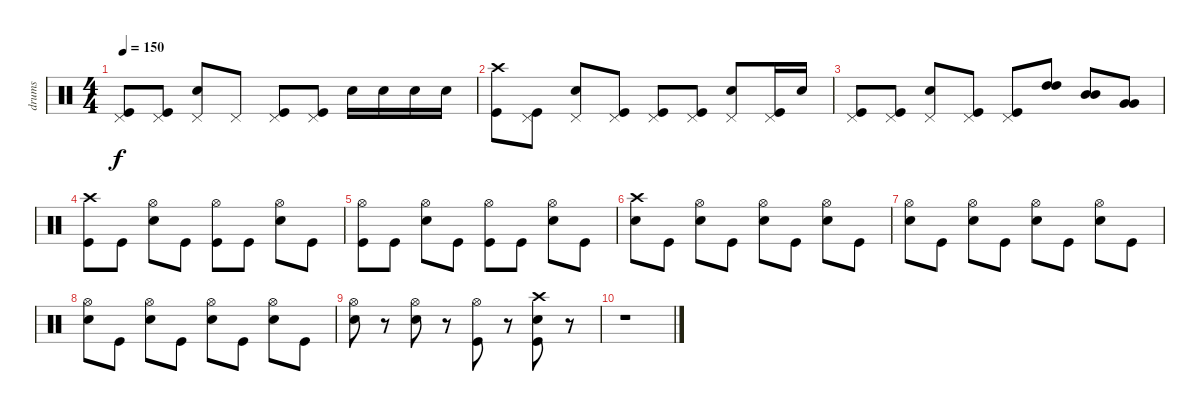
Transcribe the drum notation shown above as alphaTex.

\track ("drums" "drums") {instrument percussion}
\staff {score}
\articulation defaults
\ts (4 4)
\tempo 150
\clef neutral
\ks c
("Pedal Hi-Hat (hit)" "Kick (hit)").8{dy f} ("Pedal Hi-Hat (hit)" "Kick (hit)").8 ("Pedal Hi-Hat (hit)" "Electric Snare (hit)").8 "Pedal Hi-Hat (hit)".8 ("Pedal Hi-Hat (hit)" "Kick (hit)").8 ("Pedal Hi-Hat (hit)" "Kick (hit)").8 "Electric Snare (hit)".16 "Electric Snare (hit)".16 "Electric Snare (hit)".16 "Electric Snare (hit)".16 |
("Crash high (hit)" "Kick (hit)").8 ("Pedal Hi-Hat (hit)" "Kick (hit)").8 ("Pedal Hi-Hat (hit)" "Electric Snare (hit)").8 ("Pedal Hi-Hat (hit)" "Kick (hit)").8 ("Pedal Hi-Hat (hit)" "Kick (hit)").8 ("Pedal Hi-Hat (hit)" "Kick (hit)").8 ("Pedal Hi-Hat (hit)" "Electric Snare (hit)").8 ("Pedal Hi-Hat (hit)" "Kick (hit)").16 "Electric Snare (hit)".16 |
("Pedal Hi-Hat (hit)" "Kick (hit)").8 ("Pedal Hi-Hat (hit)" "Kick (hit)").8 ("Pedal Hi-Hat (hit)" "Electric Snare (hit)").8 ("Pedal Hi-Hat (hit)" "Kick (hit)").8 ("Pedal Hi-Hat (hit)" "Kick (hit)").8 ("High Tom (hit)" "High Tom (hit)").8 ("Mid Tom (hit)" "Mid Tom (hit)").8 ("Very Low Tom (hit)" "Very Low Tom (hit)").8 |
("Crash high (hit)" "Kick (hit)").8 "Kick (hit)".8 ("Hi-Hat (open)" "Electric Snare (hit)").8 "Kick (hit)".8 ("Hi-Hat (open)" "Kick (hit)").8 "Kick (hit)".8 ("Hi-Hat (open)" "Electric Snare (hit)").8 "Kick (hit)".8 |
("Hi-Hat (open)" "Kick (hit)").8 "Kick (hit)".8 ("Hi-Hat (open)" "Electric Snare (hit)").8 "Kick (hit)".8 ("Hi-Hat (open)" "Kick (hit)").8 "Kick (hit)".8 ("Hi-Hat (open)" "Electric Snare (hit)").8 "Kick (hit)".8 |
("Crash high (hit)" "Electric Snare (hit)").8 "Kick (hit)".8 ("Hi-Hat (open)" "Electric Snare (hit)").8 "Kick (hit)".8 ("Hi-Hat (open)" "Electric Snare (hit)").8 "Kick (hit)".8 ("Hi-Hat (open)" "Electric Snare (hit)").8 "Kick (hit)".8 |
("Hi-Hat (open)" "Electric Snare (hit)").8 "Kick (hit)".8 ("Hi-Hat (open)" "Electric Snare (hit)").8 "Kick (hit)".8 ("Hi-Hat (open)" "Electric Snare (hit)").8 "Kick (hit)".8 ("Hi-Hat (open)" "Electric Snare (hit)").8 "Kick (hit)".8 |
("Hi-Hat (open)" "Electric Snare (hit)").8 "Kick (hit)".8 ("Hi-Hat (open)" "Electric Snare (hit)").8 "Kick (hit)".8 ("Hi-Hat (open)" "Electric Snare (hit)").8 "Kick (hit)".8 ("Hi-Hat (open)" "Electric Snare (hit)").8 "Kick (hit)".8 |
("Hi-Hat (open)" "Electric Snare (hit)").8 r.8 ("Hi-Hat (open)" "Electric Snare (hit)").8 r.8 ("Hi-Hat (open)" "Kick (hit)").8 r.8 ("Crash high (hit)" "Electric Snare (hit)" "Kick (hit)").8 r.8 |
r.1
